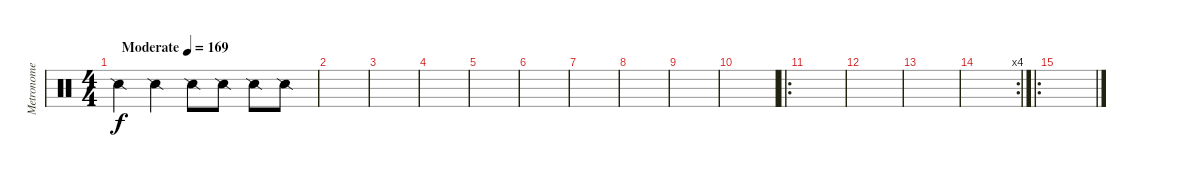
\track ("Metronome" "Metronome") {instrument percussion}
\staff {score}
\articulation defaults
\ts (4 4)
\tempo (169 "Moderate")
\clef neutral
\ks c "Snare (side stick) 2".4{dy f} "Snare (side stick) 2".4 "Snare (side stick) 2".8 "Snare (side stick) 2".8 "Snare (side stick) 2".8 "Snare (side stick) 2".8
|
|
|
|
|
|
|
|
|
|
\ro
|
|
|
\rc 4
|
\ro
